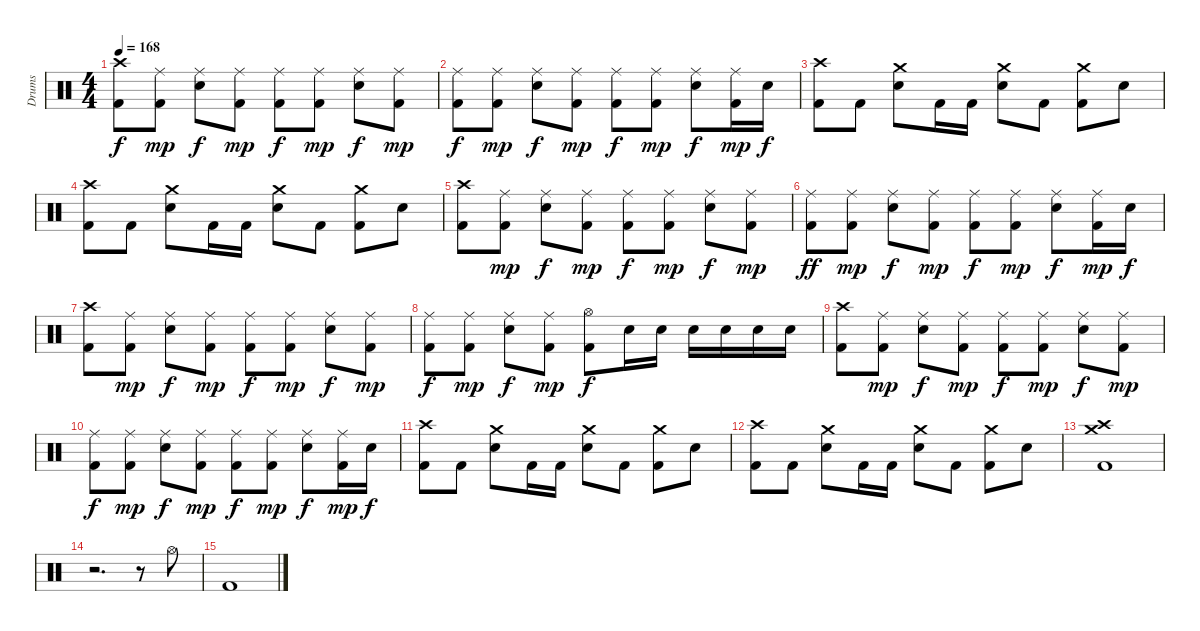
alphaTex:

\track ("Drums" "Drums") {instrument percussion}
\staff {score}
\articulation defaults
\ts (4 4)
\tempo 168
\clef neutral
\ks c
("Crash high (hit)" "Kick (hit) 2").8{dy f} ("Ride (middle)" "Kick (hit) 2").8{dy mp} ("Ride (middle)" "Electric Snare (hit)").8{dy f} ("Ride (middle)" "Kick (hit) 2").8{dy mp} ("Ride (middle)" "Kick (hit) 2").8{dy f} ("Ride (middle)" "Kick (hit) 2").8{dy mp} ("Ride (middle)" "Electric Snare (hit)").8{dy f} ("Ride (middle)" "Kick (hit) 2").8{dy mp} |
("Ride (middle)" "Kick (hit) 2").8{dy f} ("Ride (middle)" "Kick (hit) 2").8{dy mp} ("Ride (middle)" "Electric Snare (hit)").8{dy f} ("Ride (middle)" "Kick (hit) 2").8{dy mp} ("Ride (middle)" "Kick (hit) 2").8{dy f} ("Ride (middle)" "Kick (hit) 2").8{dy mp} ("Ride (middle)" "Electric Snare (hit)").8{dy f} ("Ride (middle)" "Kick (hit) 2").16{dy mp} "Electric Snare (hit)".16{dy f} |
("Crash high (hit)" "Kick (hit) 2").8 "Kick (hit) 2".8 ("Crash medium (hit)" "Electric Snare (hit)").8 "Kick (hit) 2".16 "Kick (hit) 2".16 ("Crash medium (hit)" "Electric Snare (hit)").8 "Kick (hit) 2".8 ("Crash medium (hit)" "Kick (hit) 2").8 "Electric Snare (hit)".8 |
("Crash high (hit)" "Kick (hit) 2").8 "Kick (hit) 2".8 ("Crash medium (hit)" "Electric Snare (hit)").8 "Kick (hit) 2".16 "Kick (hit) 2".16 ("Crash medium (hit)" "Electric Snare (hit)").8 "Kick (hit) 2".8 ("Crash medium (hit)" "Kick (hit) 2").8 "Electric Snare (hit)".8 |
("Crash high (hit)" "Kick (hit) 2").8 ("Ride (middle)" "Kick (hit) 2").8{dy mp} ("Ride (middle)" "Electric Snare (hit)").8{dy f} ("Ride (middle)" "Kick (hit) 2").8{dy mp} ("Ride (middle)" "Kick (hit) 2").8{dy f} ("Ride (middle)" "Kick (hit) 2").8{dy mp} ("Ride (middle)" "Electric Snare (hit)").8{dy f} ("Ride (middle)" "Kick (hit) 2").8{dy mp} |
("Ride (middle)" "Kick (hit) 2").8{dy ff} ("Ride (middle)" "Kick (hit) 2").8{dy mp} ("Ride (middle)" "Electric Snare (hit)").8{dy f} ("Ride (middle)" "Kick (hit) 2").8{dy mp} ("Ride (middle)" "Kick (hit) 2").8{dy f} ("Ride (middle)" "Kick (hit) 2").8{dy mp} ("Ride (middle)" "Electric Snare (hit)").8{dy f} ("Ride (middle)" "Kick (hit) 2").16{dy mp} "Electric Snare (hit)".16{dy f} |
("Crash high (hit)" "Kick (hit) 2").8 ("Ride (middle)" "Kick (hit) 2").8{dy mp} ("Ride (middle)" "Electric Snare (hit)").8{dy f} ("Ride (middle)" "Kick (hit) 2").8{dy mp} ("Ride (middle)" "Kick (hit) 2").8{dy f} ("Ride (middle)" "Kick (hit) 2").8{dy mp} ("Ride (middle)" "Electric Snare (hit)").8{dy f} ("Ride (middle)" "Kick (hit) 2").8{dy mp} |
("Ride (middle)" "Kick (hit) 2").8{dy f} ("Ride (middle)" "Kick (hit) 2").8{dy mp} ("Ride (middle)" "Electric Snare (hit)").8{dy f} ("Ride (middle)" "Kick (hit) 2").8{dy mp} ("Hi-Hat (open)" "Kick (hit) 2").8{dy f} "Electric Snare (hit)".16 "Electric Snare (hit)".16 "Electric Snare (hit)".16 "Electric Snare (hit)".16 "Electric Snare (hit)".16 "Electric Snare (hit)".16 |
("Crash high (hit)" "Kick (hit) 2").8 ("Ride (middle)" "Kick (hit) 2").8{dy mp} ("Ride (middle)" "Electric Snare (hit)").8{dy f} ("Ride (middle)" "Kick (hit) 2").8{dy mp} ("Ride (middle)" "Kick (hit) 2").8{dy f} ("Ride (middle)" "Kick (hit) 2").8{dy mp} ("Ride (middle)" "Electric Snare (hit)").8{dy f} ("Ride (middle)" "Kick (hit) 2").8{dy mp} |
("Ride (middle)" "Kick (hit) 2").8{dy f} ("Ride (middle)" "Kick (hit) 2").8{dy mp} ("Ride (middle)" "Electric Snare (hit)").8{dy f} ("Ride (middle)" "Kick (hit) 2").8{dy mp} ("Ride (middle)" "Kick (hit) 2").8{dy f} ("Ride (middle)" "Kick (hit) 2").8{dy mp} ("Ride (middle)" "Electric Snare (hit)").8{dy f} ("Ride (middle)" "Kick (hit) 2").16{dy mp} "Electric Snare (hit)".16{dy f} |
("Crash high (hit)" "Kick (hit) 2").8 "Kick (hit) 2".8 ("Crash medium (hit)" "Electric Snare (hit)").8 "Kick (hit) 2".16 "Kick (hit) 2".16 ("Crash medium (hit)" "Electric Snare (hit)").8 "Kick (hit) 2".8 ("Crash medium (hit)" "Kick (hit) 2").8 "Electric Snare (hit)".8 |
("Crash high (hit)" "Kick (hit) 2").8 "Kick (hit) 2".8 ("Crash medium (hit)" "Electric Snare (hit)").8 "Kick (hit) 2".16 "Kick (hit) 2".16 ("Crash medium (hit)" "Electric Snare (hit)").8 "Kick (hit) 2".8 ("Crash medium (hit)" "Kick (hit) 2").8 "Electric Snare (hit)".8 |
("Crash high (hit)" "Crash medium (hit)" "Kick (hit) 2").1 |
r.2{d} r.8 "Hi-Hat (open)".8 |
"Kick (hit) 2".1
